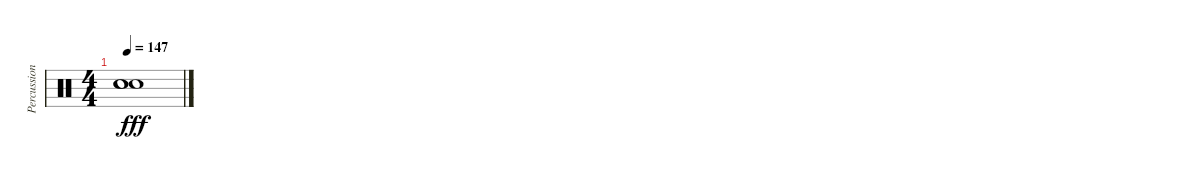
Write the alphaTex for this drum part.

\track ("Percussion" "Percussion") {instrument percussion}
\staff {score}
\articulation defaults
\ts (4 4)
\tempo 147
\clef neutral
\ks c
("Snare (hit)"{t} "Snare (hit)"{t} "Snare (hit)"{t}).1{dy fff}
